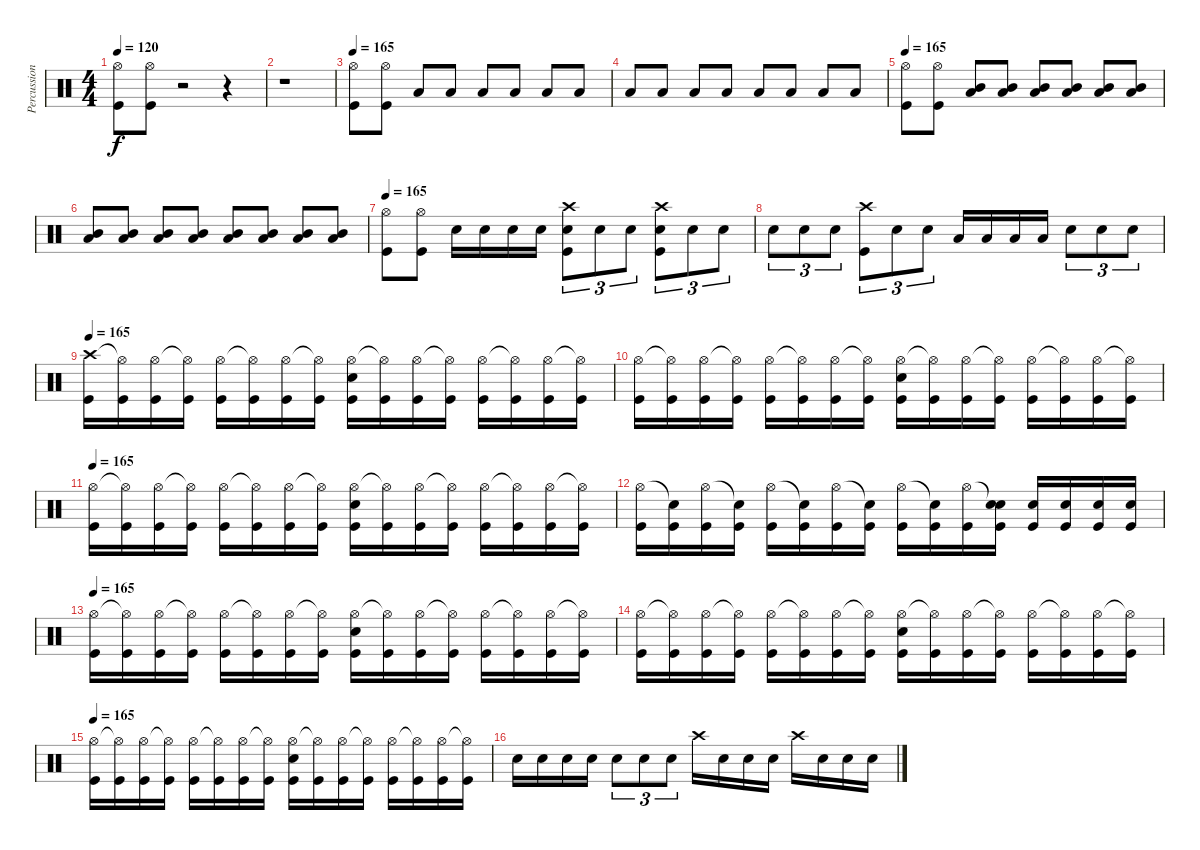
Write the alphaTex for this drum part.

\track ("Percussion" "Percussion") {instrument percussion}
\staff {score}
\articulation defaults
\ts (4 4)
\tempo 120
\tempo 165
\tempo 120
\clef neutral
\ks c
("Hi-Hat (open)" "Kick (hit)").8{dy f} ("Hi-Hat (open)" "Kick (hit)").8 r.2 r.4 |
r.1 |
\tempo 165
("Hi-Hat (open)" "Kick (hit)").8 ("Hi-Hat (open)" "Kick (hit)").8 "Low Tom (hit)".8 "Low Tom (hit)".8 "Low Tom (hit)".8 "Low Tom (hit)".8 "Low Tom (hit)".8 "Low Tom (hit)".8 |
"Low Tom (hit)".8 "Low Tom (hit)".8 "Low Tom (hit)".8 "Low Tom (hit)".8 "Low Tom (hit)".8 "Low Tom (hit)".8 "Low Tom (hit)".8 "Low Tom (hit)".8 |
\tempo 165
("Hi-Hat (open)" "Kick (hit)").8 ("Hi-Hat (open)" "Kick (hit)").8 ("Mid Tom (hit)" "Low Floor Tom (hit)").8 ("Mid Tom (hit)" "Low Floor Tom (hit)").8 ("Mid Tom (hit)" "Low Floor Tom (hit)").8 ("Mid Tom (hit)" "Low Floor Tom (hit)").8 ("Mid Tom (hit)" "Low Floor Tom (hit)").8 ("Mid Tom (hit)" "Low Floor Tom (hit)").8 |
("Mid Tom (hit)" "Low Floor Tom (hit)").8 ("Mid Tom (hit)" "Low Floor Tom (hit)").8 ("Mid Tom (hit)" "Low Floor Tom (hit)").8 ("Mid Tom (hit)" "Low Floor Tom (hit)").8 ("Mid Tom (hit)" "Low Floor Tom (hit)").8 ("Mid Tom (hit)" "Low Floor Tom (hit)").8 ("Mid Tom (hit)" "Low Floor Tom (hit)").8 ("Mid Tom (hit)" "Low Floor Tom (hit)").8 |
\tempo 165
("Hi-Hat (open)" "Kick (hit)").8 ("Hi-Hat (open)" "Kick (hit)").8 "Snare (hit) 2".16 "Snare (hit) 2".16 "Snare (hit) 2".16 "Snare (hit) 2".16 ("Crash high (hit)" "Snare (hit) 2" "Kick (hit)").8{tu (3 2)} "Snare (hit) 2".8{tu (3 2)} "Snare (hit) 2".8{tu (3 2)} ("Snare (hit) 2" "Crash high (hit)" "Kick (hit)").8{tu (3 2)} "Snare (hit) 2".8{tu (3 2)} "Snare (hit) 2".8{tu (3 2)} |
"Snare (hit) 2".8{tu (3 2)} "Snare (hit) 2".8{tu (3 2)} "Snare (hit) 2".8{tu (3 2)} ("Crash high (hit)" "Kick (hit)").8{tu (3 2)} "Snare (hit) 2".8{tu (3 2)} "Snare (hit) 2".8{tu (3 2)} "Low Tom (hit)".16 "Low Tom (hit)".16 "Low Tom (hit)".16 "Low Tom (hit)".16 "Snare (hit) 2".8{tu (3 2)} "Snare (hit) 2".8{tu (3 2)} "Snare (hit) 2".8{tu (3 2)} |
\tempo 165
("Crash high (hit)" "Kick (hit)").16 ("Hi-Hat (open)"{t} "Kick (hit)").16 ("Hi-Hat (open)" "Kick (hit)").16 ("Hi-Hat (open)"{t} "Kick (hit)").16 ("Hi-Hat (open)" "Kick (hit)").16 ("Hi-Hat (open)"{t} "Kick (hit)").16 ("Hi-Hat (open)" "Kick (hit)").16 ("Hi-Hat (open)"{t} "Kick (hit)").16 ("Hi-Hat (open)" "Snare (hit) 2" "Kick (hit)").16 ("Hi-Hat (open)"{t} "Kick (hit)").16 ("Hi-Hat (open)" "Kick (hit)").16 ("Hi-Hat (open)"{t} "Kick (hit)").16 ("Hi-Hat (open)" "Kick (hit)").16 ("Hi-Hat (open)"{t} "Kick (hit)").16 ("Hi-Hat (open)" "Kick (hit)").16 ("Hi-Hat (open)"{t} "Kick (hit)").16 |
("Hi-Hat (open)" "Kick (hit)").16 ("Hi-Hat (open)"{t} "Kick (hit)").16 ("Hi-Hat (open)" "Kick (hit)").16 ("Hi-Hat (open)"{t} "Kick (hit)").16 ("Hi-Hat (open)" "Kick (hit)").16 ("Hi-Hat (open)"{t} "Kick (hit)").16 ("Hi-Hat (open)" "Kick (hit)").16 ("Hi-Hat (open)"{t} "Kick (hit)").16 ("Hi-Hat (open)" "Snare (hit) 2" "Kick (hit)").16 ("Hi-Hat (open)"{t} "Kick (hit)").16 ("Hi-Hat (open)" "Kick (hit)").16 ("Hi-Hat (open)"{t} "Kick (hit)").16 ("Hi-Hat (open)" "Kick (hit)").16 ("Hi-Hat (open)"{t} "Kick (hit)").16 ("Hi-Hat (open)" "Kick (hit)").16 ("Hi-Hat (open)"{t} "Kick (hit)").16 |
\tempo 165
("Hi-Hat (open)" "Kick (hit)").16 ("Hi-Hat (open)"{t} "Kick (hit)").16 ("Hi-Hat (open)" "Kick (hit)").16 ("Hi-Hat (open)"{t} "Kick (hit)").16 ("Hi-Hat (open)" "Kick (hit)").16 ("Hi-Hat (open)"{t} "Kick (hit)").16 ("Hi-Hat (open)" "Kick (hit)").16 ("Hi-Hat (open)"{t} "Kick (hit)").16 ("Hi-Hat (open)" "Snare (hit) 2" "Kick (hit)").16 ("Hi-Hat (open)"{t} "Kick (hit)").16 ("Hi-Hat (open)" "Kick (hit)").16 ("Hi-Hat (open)"{t} "Kick (hit)").16 ("Hi-Hat (open)" "Kick (hit)").16 ("Hi-Hat (open)"{t} "Kick (hit)").16 ("Hi-Hat (open)" "Kick (hit)").16 ("Hi-Hat (open)"{t} "Kick (hit)").16 |
("Hi-Hat (open)" "Kick (hit)").16 ("Snare (hit)"{t} "Kick (hit)").16 ("Hi-Hat (open)" "Kick (hit)").16 ("Snare (hit)"{t} "Kick (hit)").16 ("Hi-Hat (open)" "Kick (hit)").16 ("Snare (hit)"{t} "Kick (hit)").16 ("Hi-Hat (open)" "Kick (hit)").16 ("Snare (hit)"{t} "Kick (hit)").16 ("Hi-Hat (open)" "Kick (hit)").16 ("Snare (hit)"{t} "Kick (hit)").16 ("Hi-Hat (open)" "Kick (hit)").16 ("Snare (hit)"{t} "Snare (hit) 2" "Kick (hit)").16 ("Snare (hit) 2" "Kick (hit)").16 ("Snare (hit) 2" "Kick (hit)").16 ("Snare (hit) 2" "Kick (hit)").16 ("Snare (hit) 2" "Kick (hit)").16 |
\tempo 165
("Hi-Hat (open)" "Kick (hit)").16 ("Hi-Hat (open)"{t} "Kick (hit)").16 ("Hi-Hat (open)" "Kick (hit)").16 ("Hi-Hat (open)"{t} "Kick (hit)").16 ("Hi-Hat (open)" "Kick (hit)").16 ("Hi-Hat (open)"{t} "Kick (hit)").16 ("Hi-Hat (open)" "Kick (hit)").16 ("Hi-Hat (open)"{t} "Kick (hit)").16 ("Hi-Hat (open)" "Snare (hit) 2" "Kick (hit)").16 ("Hi-Hat (open)"{t} "Kick (hit)").16 ("Hi-Hat (open)" "Kick (hit)").16 ("Hi-Hat (open)"{t} "Kick (hit)").16 ("Hi-Hat (open)" "Kick (hit)").16 ("Hi-Hat (open)"{t} "Kick (hit)").16 ("Hi-Hat (open)" "Kick (hit)").16 ("Hi-Hat (open)"{t} "Kick (hit)").16 |
("Hi-Hat (open)" "Kick (hit)").16 ("Hi-Hat (open)"{t} "Kick (hit)").16 ("Hi-Hat (open)" "Kick (hit)").16 ("Hi-Hat (open)"{t} "Kick (hit)").16 ("Hi-Hat (open)" "Kick (hit)").16 ("Hi-Hat (open)"{t} "Kick (hit)").16 ("Hi-Hat (open)" "Kick (hit)").16 ("Hi-Hat (open)"{t} "Kick (hit)").16 ("Hi-Hat (open)" "Snare (hit) 2" "Kick (hit)").16 ("Hi-Hat (open)"{t} "Kick (hit)").16 ("Hi-Hat (open)" "Kick (hit)").16 ("Hi-Hat (open)"{t} "Kick (hit)").16 ("Hi-Hat (open)" "Kick (hit)").16 ("Hi-Hat (open)"{t} "Kick (hit)").16 ("Hi-Hat (open)" "Kick (hit)").16 ("Hi-Hat (open)"{t} "Kick (hit)").16 |
\tempo 165
("Hi-Hat (open)" "Kick (hit)").16 ("Hi-Hat (open)"{t} "Kick (hit)").16 ("Hi-Hat (open)" "Kick (hit)").16 ("Hi-Hat (open)"{t} "Kick (hit)").16 ("Hi-Hat (open)" "Kick (hit)").16 ("Hi-Hat (open)"{t} "Kick (hit)").16 ("Hi-Hat (open)" "Kick (hit)").16 ("Hi-Hat (open)"{t} "Kick (hit)").16 ("Hi-Hat (open)" "Snare (hit) 2" "Kick (hit)").16 ("Hi-Hat (open)"{t} "Kick (hit)").16 ("Hi-Hat (open)" "Kick (hit)").16 ("Hi-Hat (open)"{t} "Kick (hit)").16 ("Hi-Hat (open)" "Kick (hit)").16 ("Hi-Hat (open)"{t} "Kick (hit)").16 ("Hi-Hat (open)" "Kick (hit)").16 ("Hi-Hat (open)"{t} "Kick (hit)").16 |
"Snare (hit) 2".16 "Snare (hit) 2".16 "Snare (hit) 2".16 "Snare (hit) 2".16 "Snare (hit) 2".8{tu (3 2)} "Snare (hit) 2".8{tu (3 2)} "Snare (hit) 2".8{tu (3 2)} "Crash high (hit)".16 "Snare (hit) 2".16 "Snare (hit) 2".16 "Snare (hit) 2".16 "Crash high (hit)".16 "Snare (hit) 2".16 "Snare (hit) 2".16 "Snare (hit) 2".16
